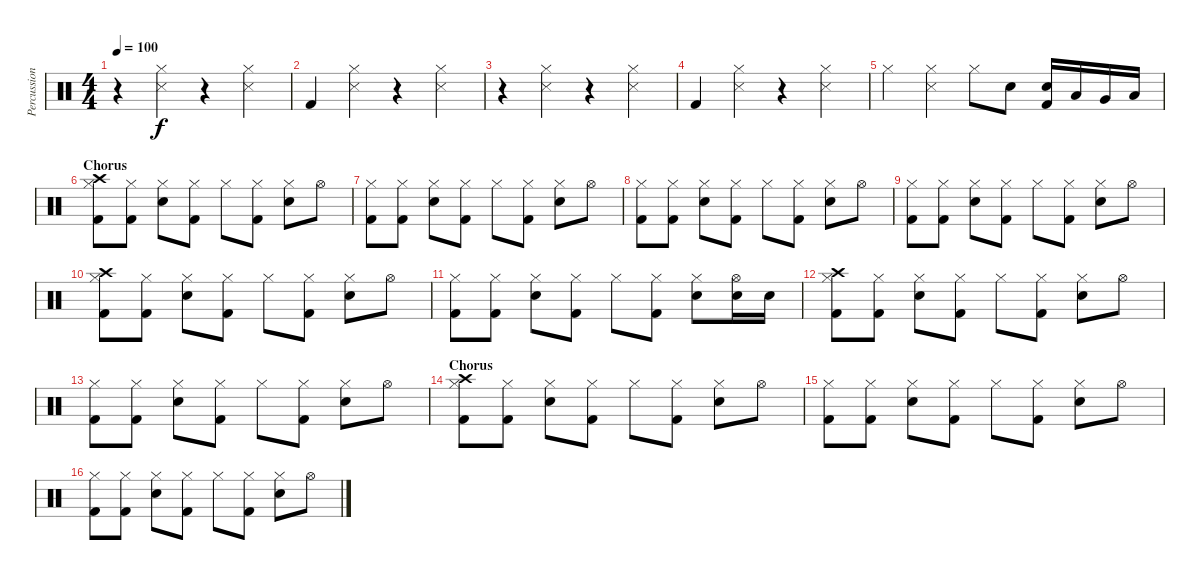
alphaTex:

\track ("Percussion" "Percussion") {instrument percussion}
\staff {score}
\articulation defaults
\ts (4 4)
\tempo 100
\clef neutral
\ks c
r.4{dy f} ("Hi-Hat (closed)" "Snare (side stick) 3").4 r.4 ("Hi-Hat (closed)" "Snare (side stick) 3").4 |
"Kick (hit) 2".4 ("Hi-Hat (closed)" "Snare (side stick) 3").4 r.4 ("Hi-Hat (closed)" "Snare (side stick) 3").4 |
r.4 ("Hi-Hat (closed)" "Snare (side stick) 3").4 r.4 ("Hi-Hat (closed)" "Snare (side stick) 3").4 |
"Kick (hit) 2".4 ("Hi-Hat (closed)" "Snare (side stick) 3").4 r.4 ("Hi-Hat (closed)" "Snare (side stick) 3").4 |
"Hi-Hat (closed)".4 ("Hi-Hat (closed)" "Snare (side stick) 3").4 "Hi-Hat (closed)".8 "Electric Snare (hit)".8 ("Electric Snare (hit)" "Kick (hit) 2").16 "Low Tom (hit)".16 "Very Low Tom (hit)".16 "Low Floor Tom (hit)".16 |
\section ("" "Chorus")
("Crash high (hit)" "Hi-Hat (closed)" "Kick (hit) 2").8 ("Hi-Hat (closed)" "Kick (hit) 2").8 ("Hi-Hat (closed)" "Electric Snare (hit)").8 ("Hi-Hat (closed)" "Kick (hit) 2").8 "Hi-Hat (closed)".8 ("Hi-Hat (closed)" "Kick (hit) 2").8 ("Hi-Hat (closed)" "Electric Snare (hit)").8 "Hi-Hat (open)".8 |
("Hi-Hat (closed)" "Kick (hit) 2").8 ("Hi-Hat (closed)" "Kick (hit) 2").8 ("Hi-Hat (closed)" "Electric Snare (hit)").8 ("Hi-Hat (closed)" "Kick (hit) 2").8 "Hi-Hat (closed)".8 ("Hi-Hat (closed)" "Kick (hit) 2").8 ("Hi-Hat (closed)" "Electric Snare (hit)").8 "Hi-Hat (open)".8 |
("Hi-Hat (closed)" "Kick (hit) 2").8 ("Hi-Hat (closed)" "Kick (hit) 2").8 ("Hi-Hat (closed)" "Electric Snare (hit)").8 ("Hi-Hat (closed)" "Kick (hit) 2").8 "Hi-Hat (closed)".8 ("Hi-Hat (closed)" "Kick (hit) 2").8 ("Hi-Hat (closed)" "Electric Snare (hit)").8 "Hi-Hat (open)".8 |
("Hi-Hat (closed)" "Kick (hit) 2").8 ("Hi-Hat (closed)" "Kick (hit) 2").8 ("Hi-Hat (closed)" "Electric Snare (hit)").8 ("Hi-Hat (closed)" "Kick (hit) 2").8 "Hi-Hat (closed)".8 ("Hi-Hat (closed)" "Kick (hit) 2").8 ("Hi-Hat (closed)" "Electric Snare (hit)").8 "Hi-Hat (open)".8 |
("Crash high (hit)" "Hi-Hat (closed)" "Kick (hit) 2").8 ("Hi-Hat (closed)" "Kick (hit) 2").8 ("Hi-Hat (closed)" "Electric Snare (hit)").8 ("Hi-Hat (closed)" "Kick (hit) 2").8 "Hi-Hat (closed)".8 ("Hi-Hat (closed)" "Kick (hit) 2").8 ("Hi-Hat (closed)" "Electric Snare (hit)").8 "Hi-Hat (open)".8 |
("Hi-Hat (closed)" "Kick (hit) 2").8 ("Hi-Hat (closed)" "Kick (hit) 2").8 ("Hi-Hat (closed)" "Electric Snare (hit)").8 ("Hi-Hat (closed)" "Kick (hit) 2").8 "Hi-Hat (closed)".8 ("Hi-Hat (closed)" "Kick (hit) 2").8 ("Hi-Hat (closed)" "Electric Snare (hit)").8 ("Hi-Hat (open)" "Electric Snare (hit)").16 "Electric Snare (hit)".16 |
("Crash high (hit)" "Hi-Hat (closed)" "Kick (hit) 2").8 ("Hi-Hat (closed)" "Kick (hit) 2").8 ("Hi-Hat (closed)" "Electric Snare (hit)").8 ("Hi-Hat (closed)" "Kick (hit) 2").8 "Hi-Hat (closed)".8 ("Hi-Hat (closed)" "Kick (hit) 2").8 ("Hi-Hat (closed)" "Electric Snare (hit)").8 "Hi-Hat (open)".8 |
("Hi-Hat (closed)" "Kick (hit) 2").8 ("Hi-Hat (closed)" "Kick (hit) 2").8 ("Hi-Hat (closed)" "Electric Snare (hit)").8 ("Hi-Hat (closed)" "Kick (hit) 2").8 "Hi-Hat (closed)".8 ("Hi-Hat (closed)" "Kick (hit) 2").8 ("Hi-Hat (closed)" "Electric Snare (hit)").8 "Hi-Hat (open)".8 |
\section ("" "Chorus")
("Crash high (hit)" "Hi-Hat (closed)" "Kick (hit) 2").8 ("Hi-Hat (closed)" "Kick (hit) 2").8 ("Hi-Hat (closed)" "Electric Snare (hit)").8 ("Hi-Hat (closed)" "Kick (hit) 2").8 "Hi-Hat (closed)".8 ("Hi-Hat (closed)" "Kick (hit) 2").8 ("Hi-Hat (closed)" "Electric Snare (hit)").8 "Hi-Hat (open)".8 |
("Hi-Hat (closed)" "Kick (hit) 2").8 ("Hi-Hat (closed)" "Kick (hit) 2").8 ("Hi-Hat (closed)" "Electric Snare (hit)").8 ("Hi-Hat (closed)" "Kick (hit) 2").8 "Hi-Hat (closed)".8 ("Hi-Hat (closed)" "Kick (hit) 2").8 ("Hi-Hat (closed)" "Electric Snare (hit)").8 "Hi-Hat (open)".8 |
("Hi-Hat (closed)" "Kick (hit) 2").8 ("Hi-Hat (closed)" "Kick (hit) 2").8 ("Hi-Hat (closed)" "Electric Snare (hit)").8 ("Hi-Hat (closed)" "Kick (hit) 2").8 "Hi-Hat (closed)".8 ("Hi-Hat (closed)" "Kick (hit) 2").8 ("Hi-Hat (closed)" "Electric Snare (hit)").8 "Hi-Hat (open)".8
